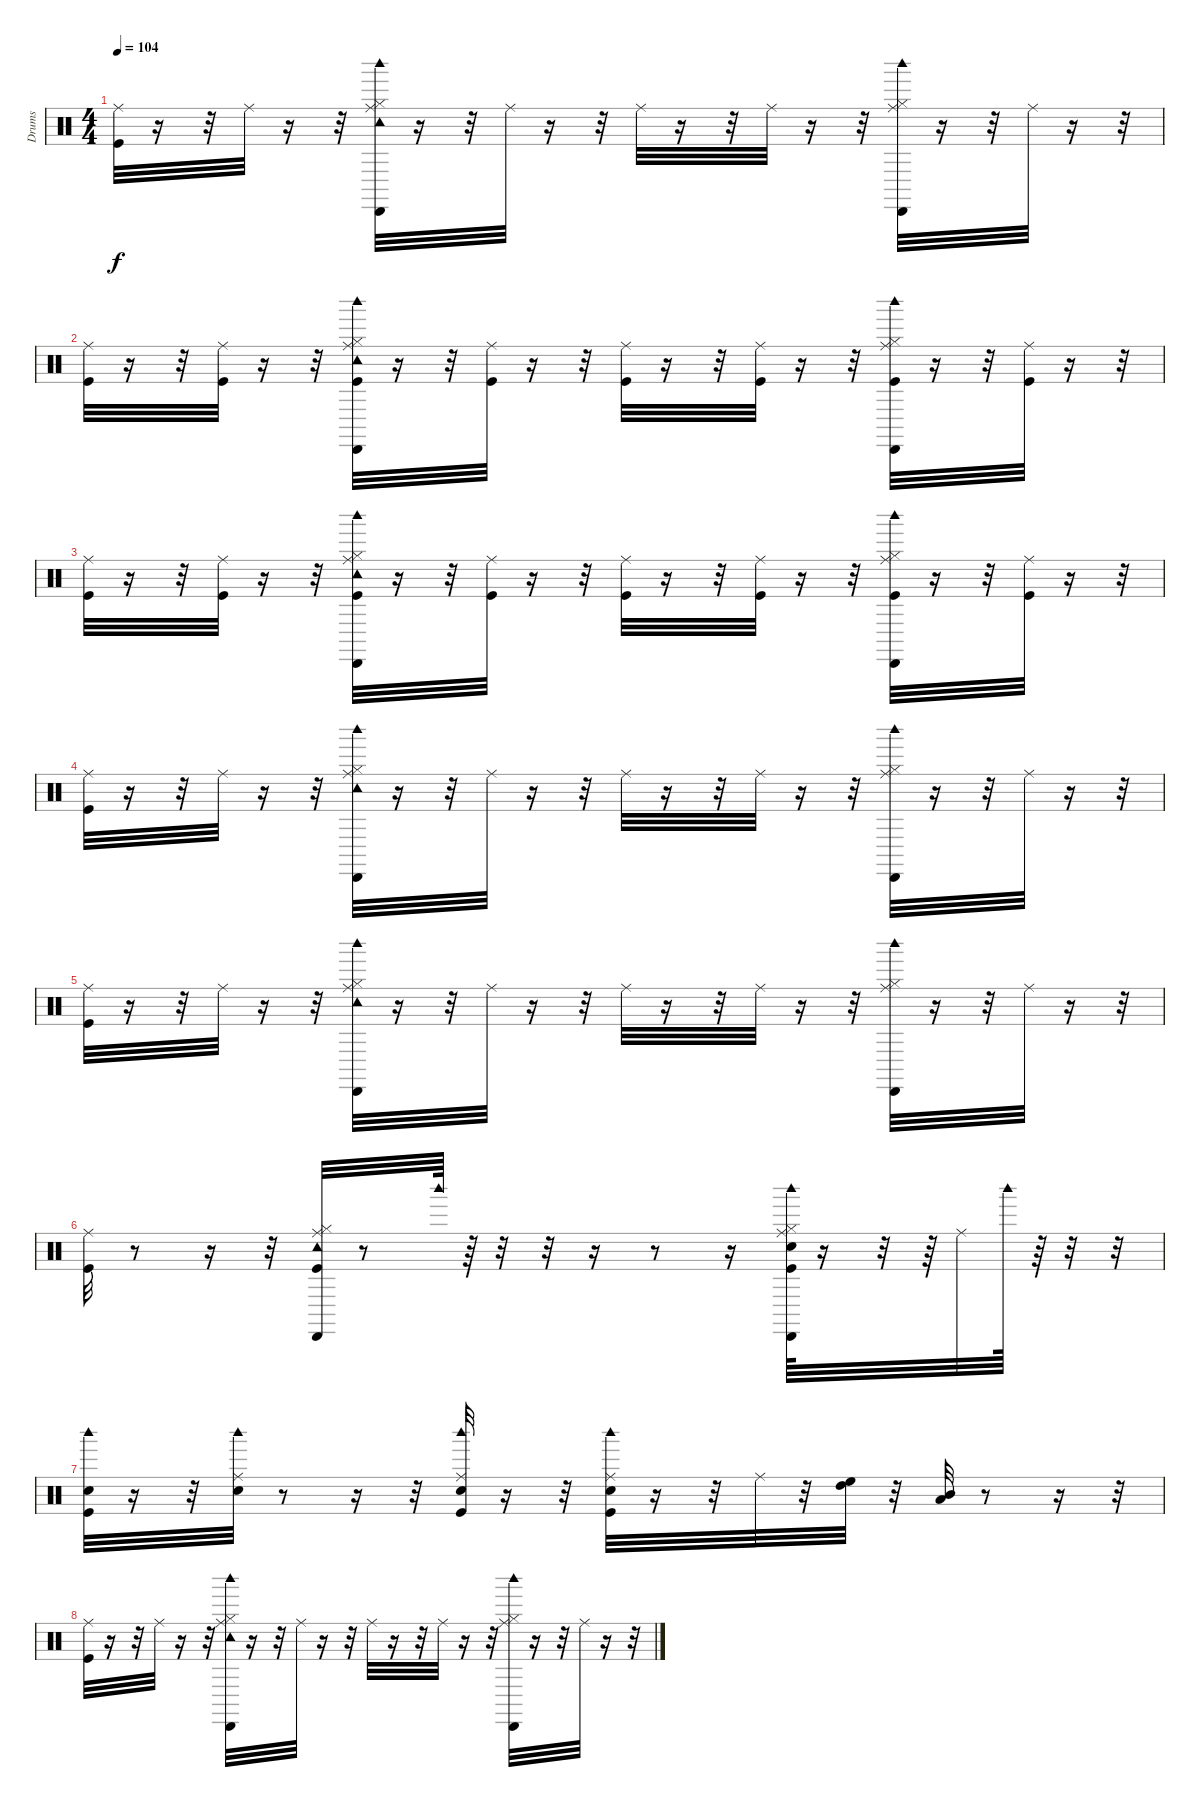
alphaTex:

\track ("Drums" "Drums") {instrument percussion}
\staff {score}
\articulation defaults
\ts (4 4)
\tempo 104
\clef neutral
\ks c
("Kick (hit)" "Ride (middle)").32{dy f} r.16 r.32 "Ride (middle)".32 r.16 r.32 ("Hi-Hat (closed)" "Ride (middle)" "Tambourine (hit)" "Cabasa (hit)" "Woodblock high (hit)").32 r.16 r.32 "Ride (middle)".32 r.16 r.32 "Ride (middle)".32 r.16 r.32 "Ride (middle)".32 r.16 r.32 ("Hi-Hat (closed)" "Ride (middle)" "Cabasa (hit)" "Woodblock high (hit)").32 r.16 r.32 "Ride (middle)".32 r.16 r.32 |
("Kick (hit)" "Ride (middle)").32 r.16 r.32 ("Kick (hit)" "Ride (middle)").32 r.16 r.32 ("Kick (hit)" "Hi-Hat (closed)" "Ride (middle)" "Tambourine (hit)" "Cabasa (hit)" "Woodblock high (hit)").32 r.16 r.32 ("Kick (hit)" "Ride (middle)").32 r.16 r.32 ("Kick (hit)" "Ride (middle)").32 r.16 r.32 ("Kick (hit)" "Ride (middle)").32 r.16 r.32 ("Kick (hit)" "Hi-Hat (closed)" "Ride (middle)" "Cabasa (hit)" "Woodblock high (hit)").32 r.16 r.32 ("Kick (hit)" "Ride (middle)").32 r.16 r.32 |
("Kick (hit)" "Ride (middle)").32 r.16 r.32 ("Kick (hit)" "Ride (middle)").32 r.16 r.32 ("Kick (hit)" "Hi-Hat (closed)" "Ride (middle)" "Tambourine (hit)" "Cabasa (hit)" "Woodblock high (hit)").32 r.16 r.32 ("Kick (hit)" "Ride (middle)").32 r.16 r.32 ("Kick (hit)" "Ride (middle)").32 r.16 r.32 ("Kick (hit)" "Ride (middle)").32 r.16 r.32 ("Kick (hit)" "Hi-Hat (closed)" "Ride (middle)" "Cabasa (hit)" "Woodblock high (hit)").32 r.16 r.32 ("Kick (hit)" "Ride (middle)").32 r.16 r.32 |
("Kick (hit)" "Ride (middle)").32 r.16 r.32 "Ride (middle)".32 r.16 r.32 ("Hi-Hat (closed)" "Ride (middle)" "Tambourine (hit)" "Cabasa (hit)" "Woodblock high (hit)").32 r.16 r.32 "Ride (middle)".32 r.16 r.32 "Ride (middle)".32 r.16 r.32 "Ride (middle)".32 r.16 r.32 ("Hi-Hat (closed)" "Ride (middle)" "Cabasa (hit)" "Woodblock high (hit)").32 r.16 r.32 "Ride (middle)".32 r.16 r.32 |
("Kick (hit)" "Ride (middle)").32 r.16 r.32 "Ride (middle)".32 r.16 r.32 ("Hi-Hat (closed)" "Ride (middle)" "Tambourine (hit)" "Cabasa (hit)" "Woodblock high (hit)").32 r.16 r.32 "Ride (middle)".32 r.16 r.32 "Ride (middle)".32 r.16 r.32 "Ride (middle)".32 r.16 r.32 ("Hi-Hat (closed)" "Ride (middle)" "Cabasa (hit)" "Woodblock high (hit)").32 r.16 r.32 "Ride (middle)".32 r.16 r.32 |
("Kick (hit)" "Ride (middle)").32 r.8 r.16 r.32 ("Kick (hit)" "Hi-Hat (closed)" "Ride (middle)" "Tambourine (hit)" "Cabasa (hit)").32 r.8 "Woodblock high (hit)".64 r.64 r.32 r.32 r.16 r.8 r.16 ("Kick (hit)" "Snare (hit) 2" "Hi-Hat (closed)" "Ride (middle)" "Cabasa (hit)" "Woodblock high (hit)").64 r.16 r.32 r.64 "Ride (middle)".32 "Woodblock high (hit)".64 r.64 r.32 r.32 |
("Kick (hit)" "Snare (hit) 2" "Woodblock high (hit)").32 r.16 r.32 ("Snare (hit) 2" "Ride (middle)" "Woodblock high (hit)").32 r.8 r.16 r.32 ("Kick (hit)" "Snare (hit) 2" "Ride (middle)" "Woodblock high (hit)").32 r.16 r.32 ("Kick (hit)" "Snare (hit) 2" "Ride (middle)" "Woodblock high (hit)").32 r.16 r.32 "Ride (middle)".32 r.32 ("High Tom (hit)" "High Floor Tom (hit)").32 r.32 ("Low Tom (hit)" "Mid Tom (hit)").32 r.8 r.16 r.32 |
("Kick (hit)" "Ride (middle)").32 r.16 r.32 "Ride (middle)".32 r.16 r.32 ("Hi-Hat (closed)" "Ride (middle)" "Tambourine (hit)" "Cabasa (hit)" "Woodblock high (hit)").32 r.16 r.32 "Ride (middle)".32 r.16 r.32 "Ride (middle)".32 r.16 r.32 "Ride (middle)".32 r.16 r.32 ("Hi-Hat (closed)" "Ride (middle)" "Cabasa (hit)" "Woodblock high (hit)").32 r.16 r.32 "Ride (middle)".32 r.16 r.32
